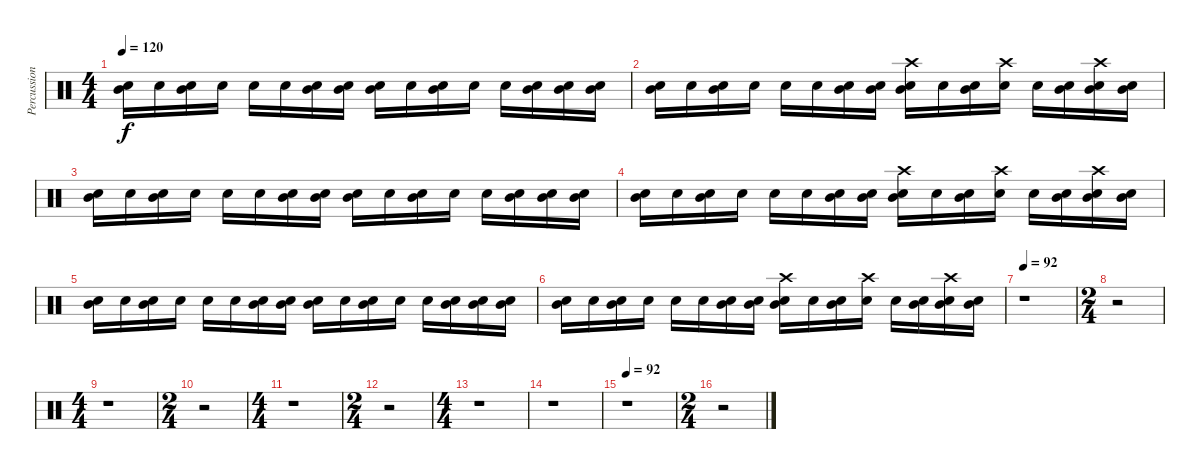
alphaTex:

\track ("Percussion" "Percussion") {instrument percussion}
\staff {score}
\articulation defaults
\ts (4 4)
\tempo 120
\clef neutral
\ks c
("Mid Tom (hit)" "Snare (hit) 2").16{dy f} "Snare (hit) 2".16 ("Mid Tom (hit)" "Snare (hit) 2").16 "Snare (hit) 2".16 "Snare (hit) 2".16 "Snare (hit) 2".16 ("Mid Tom (hit)" "Snare (hit) 2").16 ("Mid Tom (hit)" "Snare (hit) 2").16 ("Mid Tom (hit)" "Snare (hit) 2").16 "Snare (hit) 2".16 ("Mid Tom (hit)" "Snare (hit) 2").16 "Snare (hit) 2".16 "Snare (hit) 2".16 ("Mid Tom (hit)" "Snare (hit) 2").16 ("Mid Tom (hit)" "Snare (hit) 2").16 ("Mid Tom (hit)" "Snare (hit) 2").16 |
("Mid Tom (hit)" "Snare (hit) 2").16 "Snare (hit) 2".16 ("Mid Tom (hit)" "Snare (hit) 2").16 "Snare (hit) 2".16 "Snare (hit) 2".16 "Snare (hit) 2".16 ("Mid Tom (hit)" "Snare (hit) 2").16 ("Mid Tom (hit)" "Snare (hit) 2").16 ("Mid Tom (hit)" "Crash high (hit)" "Snare (hit) 2").16 "Snare (hit) 2".16 ("Mid Tom (hit)" "Snare (hit) 2").16 ("Crash high (hit)" "Snare (hit) 2").16 "Snare (hit) 2".16 ("Mid Tom (hit)" "Snare (hit) 2").16 ("Mid Tom (hit)" "Crash high (hit)" "Snare (hit) 2").16 ("Mid Tom (hit)" "Snare (hit) 2").16 |
("Mid Tom (hit)" "Snare (hit) 2").16 "Snare (hit) 2".16 ("Mid Tom (hit)" "Snare (hit) 2").16 "Snare (hit) 2".16 "Snare (hit) 2".16 "Snare (hit) 2".16 ("Mid Tom (hit)" "Snare (hit) 2").16 ("Mid Tom (hit)" "Snare (hit) 2").16 ("Mid Tom (hit)" "Snare (hit) 2").16 "Snare (hit) 2".16 ("Mid Tom (hit)" "Snare (hit) 2").16 "Snare (hit) 2".16 "Snare (hit) 2".16 ("Mid Tom (hit)" "Snare (hit) 2").16 ("Mid Tom (hit)" "Snare (hit) 2").16 ("Mid Tom (hit)" "Snare (hit) 2").16 |
("Mid Tom (hit)" "Snare (hit) 2").16 "Snare (hit) 2".16 ("Mid Tom (hit)" "Snare (hit) 2").16 "Snare (hit) 2".16 "Snare (hit) 2".16 "Snare (hit) 2".16 ("Mid Tom (hit)" "Snare (hit) 2").16 ("Mid Tom (hit)" "Snare (hit) 2").16 ("Mid Tom (hit)" "Crash high (hit)" "Snare (hit) 2").16 "Snare (hit) 2".16 ("Mid Tom (hit)" "Snare (hit) 2").16 ("Crash high (hit)" "Snare (hit) 2").16 "Snare (hit) 2".16 ("Mid Tom (hit)" "Snare (hit) 2").16 ("Mid Tom (hit)" "Crash high (hit)" "Snare (hit) 2").16 ("Mid Tom (hit)" "Snare (hit) 2").16 |
("Mid Tom (hit)" "Snare (hit) 2").16 "Snare (hit) 2".16 ("Mid Tom (hit)" "Snare (hit) 2").16 "Snare (hit) 2".16 "Snare (hit) 2".16 "Snare (hit) 2".16 ("Mid Tom (hit)" "Snare (hit) 2").16 ("Mid Tom (hit)" "Snare (hit) 2").16 ("Mid Tom (hit)" "Snare (hit) 2").16 "Snare (hit) 2".16 ("Mid Tom (hit)" "Snare (hit) 2").16 "Snare (hit) 2".16 "Snare (hit) 2".16 ("Mid Tom (hit)" "Snare (hit) 2").16 ("Mid Tom (hit)" "Snare (hit) 2").16 ("Mid Tom (hit)" "Snare (hit) 2").16 |
("Mid Tom (hit)" "Snare (hit) 2").16 "Snare (hit) 2".16 ("Mid Tom (hit)" "Snare (hit) 2").16 "Snare (hit) 2".16 "Snare (hit) 2".16 "Snare (hit) 2".16 ("Mid Tom (hit)" "Snare (hit) 2").16 ("Mid Tom (hit)" "Snare (hit) 2").16 ("Mid Tom (hit)" "Crash high (hit)" "Snare (hit) 2").16 "Snare (hit) 2".16 ("Mid Tom (hit)" "Snare (hit) 2").16 ("Crash high (hit)" "Snare (hit) 2").16 "Snare (hit) 2".16 ("Mid Tom (hit)" "Snare (hit) 2").16 ("Mid Tom (hit)" "Crash high (hit)" "Snare (hit) 2").16 ("Mid Tom (hit)" "Snare (hit) 2").16 |
\tempo 92
r.1 |
\ts (2 4)
r.2 |
\ts (4 4)
r.1 |
\ts (2 4)
r.2 |
\ts (4 4)
r.1 |
\ts (2 4)
r.2 |
\ts (4 4)
r.1 |
r.1 |
\tempo 92
r.1 |
\ts (2 4)
r.2
